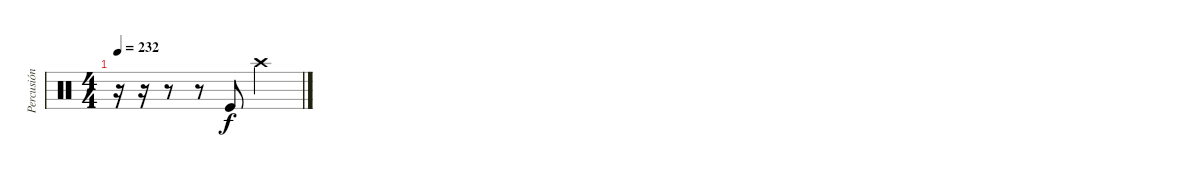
\track ("Percusión" "Percusión") {instrument percussion}
\staff {score}
\articulation defaults
\ts (4 4)
\tempo 232
\clef neutral
\ks c
r.16{dy f} r.16 r.8 r.8 "Kick (hit)".8 "Crash high (hit)".2
